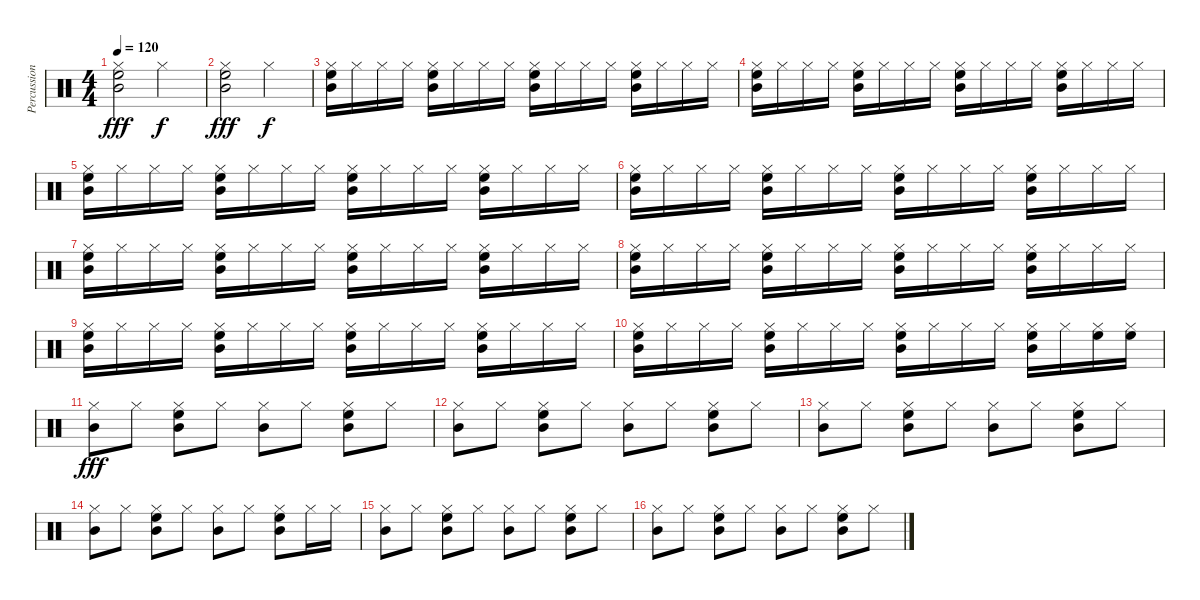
\track ("Percussion" "Percussion") {instrument percussion}
\staff {score}
\articulation defaults
\ts (4 4)
\tempo 120
\clef neutral
\ks c
("Hi-Hat (closed)" "Mid Tom (hit)" "High Floor Tom (hit)").2{dy fff} "Hi-Hat (closed)".2{dy f} |
("Hi-Hat (closed)" "Mid Tom (hit)" "High Floor Tom (hit)").2{dy fff} "Hi-Hat (closed)".2{dy f} |
("Hi-Hat (closed)" "Mid Tom (hit)" "High Floor Tom (hit)").16 "Hi-Hat (closed)".16 "Hi-Hat (closed)".16 "Hi-Hat (closed)".16 ("Hi-Hat (closed)" "Mid Tom (hit)" "High Floor Tom (hit)").16 "Hi-Hat (closed)".16 "Hi-Hat (closed)".16 "Hi-Hat (closed)".16 ("Hi-Hat (closed)" "Mid Tom (hit)" "High Floor Tom (hit)").16 "Hi-Hat (closed)".16 "Hi-Hat (closed)".16 "Hi-Hat (closed)".16 ("Hi-Hat (closed)" "Mid Tom (hit)" "High Floor Tom (hit)").16 "Hi-Hat (closed)".16 "Hi-Hat (closed)".16 "Hi-Hat (closed)".16 |
("Hi-Hat (closed)" "Mid Tom (hit)" "High Floor Tom (hit)").16 "Hi-Hat (closed)".16 "Hi-Hat (closed)".16 "Hi-Hat (closed)".16 ("Hi-Hat (closed)" "Mid Tom (hit)" "High Floor Tom (hit)").16 "Hi-Hat (closed)".16 "Hi-Hat (closed)".16 "Hi-Hat (closed)".16 ("Hi-Hat (closed)" "Mid Tom (hit)" "High Floor Tom (hit)").16 "Hi-Hat (closed)".16 "Hi-Hat (closed)".16 "Hi-Hat (closed)".16 ("Hi-Hat (closed)" "Mid Tom (hit)" "High Floor Tom (hit)").16 "Hi-Hat (closed)".16 "Hi-Hat (closed)".16 "Hi-Hat (closed)".16 |
("Hi-Hat (closed)" "Mid Tom (hit)" "High Floor Tom (hit)").16 "Hi-Hat (closed)".16 "Hi-Hat (closed)".16 "Hi-Hat (closed)".16 ("Hi-Hat (closed)" "Mid Tom (hit)" "High Floor Tom (hit)").16 "Hi-Hat (closed)".16 "Hi-Hat (closed)".16 "Hi-Hat (closed)".16 ("Hi-Hat (closed)" "Mid Tom (hit)" "High Floor Tom (hit)").16 "Hi-Hat (closed)".16 "Hi-Hat (closed)".16 "Hi-Hat (closed)".16 ("Hi-Hat (closed)" "Mid Tom (hit)" "High Floor Tom (hit)").16 "Hi-Hat (closed)".16 "Hi-Hat (closed)".16 "Hi-Hat (closed)".16 |
("Hi-Hat (closed)" "Mid Tom (hit)" "High Floor Tom (hit)").16 "Hi-Hat (closed)".16 "Hi-Hat (closed)".16 "Hi-Hat (closed)".16 ("Hi-Hat (closed)" "Mid Tom (hit)" "High Floor Tom (hit)").16 "Hi-Hat (closed)".16 "Hi-Hat (closed)".16 "Hi-Hat (closed)".16 ("Hi-Hat (closed)" "Mid Tom (hit)" "High Floor Tom (hit)").16 "Hi-Hat (closed)".16 "Hi-Hat (closed)".16 "Hi-Hat (closed)".16 ("Hi-Hat (closed)" "Mid Tom (hit)" "High Floor Tom (hit)").16 "Hi-Hat (closed)".16 "Hi-Hat (closed)".16 "Hi-Hat (closed)".16 |
("Hi-Hat (closed)" "Mid Tom (hit)" "High Floor Tom (hit)").16 "Hi-Hat (closed)".16 "Hi-Hat (closed)".16 "Hi-Hat (closed)".16 ("Hi-Hat (closed)" "Mid Tom (hit)" "High Floor Tom (hit)").16 "Hi-Hat (closed)".16 "Hi-Hat (closed)".16 "Hi-Hat (closed)".16 ("Hi-Hat (closed)" "Mid Tom (hit)" "High Floor Tom (hit)").16 "Hi-Hat (closed)".16 "Hi-Hat (closed)".16 "Hi-Hat (closed)".16 ("Hi-Hat (closed)" "Mid Tom (hit)" "High Floor Tom (hit)").16 "Hi-Hat (closed)".16 "Hi-Hat (closed)".16 "Hi-Hat (closed)".16 |
("Hi-Hat (closed)" "Mid Tom (hit)" "High Floor Tom (hit)").16 "Hi-Hat (closed)".16 "Hi-Hat (closed)".16 "Hi-Hat (closed)".16 ("Hi-Hat (closed)" "Mid Tom (hit)" "High Floor Tom (hit)").16 "Hi-Hat (closed)".16 "Hi-Hat (closed)".16 "Hi-Hat (closed)".16 ("Hi-Hat (closed)" "Mid Tom (hit)" "High Floor Tom (hit)").16 "Hi-Hat (closed)".16 "Hi-Hat (closed)".16 "Hi-Hat (closed)".16 ("Hi-Hat (closed)" "Mid Tom (hit)" "High Floor Tom (hit)").16 "Hi-Hat (closed)".16 "Hi-Hat (closed)".16 "Hi-Hat (closed)".16 |
("Hi-Hat (closed)" "Mid Tom (hit)" "High Floor Tom (hit)").16 "Hi-Hat (closed)".16 "Hi-Hat (closed)".16 "Hi-Hat (closed)".16 ("Hi-Hat (closed)" "Mid Tom (hit)" "High Floor Tom (hit)").16 "Hi-Hat (closed)".16 "Hi-Hat (closed)".16 "Hi-Hat (closed)".16 ("Hi-Hat (closed)" "Mid Tom (hit)" "High Floor Tom (hit)").16 "Hi-Hat (closed)".16 "Hi-Hat (closed)".16 "Hi-Hat (closed)".16 ("Hi-Hat (closed)" "Mid Tom (hit)" "High Floor Tom (hit)").16 "Hi-Hat (closed)".16 "Hi-Hat (closed)".16 "Hi-Hat (closed)".16 |
("Hi-Hat (closed)" "Mid Tom (hit)" "High Floor Tom (hit)").16 "Hi-Hat (closed)".16 "Hi-Hat (closed)".16 "Hi-Hat (closed)".16 ("Hi-Hat (closed)" "Mid Tom (hit)" "High Floor Tom (hit)").16 "Hi-Hat (closed)".16 "Hi-Hat (closed)".16 "Hi-Hat (closed)".16 ("Hi-Hat (closed)" "Mid Tom (hit)" "High Floor Tom (hit)").16 "Hi-Hat (closed)".16 "Hi-Hat (closed)".16 "Hi-Hat (closed)".16 ("Hi-Hat (closed)" "Mid Tom (hit)" "High Floor Tom (hit)").16 "Hi-Hat (closed)".16 ("Hi-Hat (closed)" "High Floor Tom (hit)").16 ("Hi-Hat (closed)" "High Floor Tom (hit)").16 |
("Hi-Hat (closed)" "Mid Tom (hit)").8{dy fff} "Hi-Hat (closed)".8 ("Hi-Hat (closed)" "Mid Tom (hit)" "High Floor Tom (hit)").8 "Hi-Hat (closed)".8 ("Hi-Hat (closed)" "Mid Tom (hit)").8 "Hi-Hat (closed)".8 ("Hi-Hat (closed)" "Mid Tom (hit)" "High Floor Tom (hit)").8 "Hi-Hat (closed)".8 |
("Hi-Hat (closed)" "Mid Tom (hit)").8 "Hi-Hat (closed)".8 ("Hi-Hat (closed)" "Mid Tom (hit)" "High Floor Tom (hit)").8 "Hi-Hat (closed)".8 ("Hi-Hat (closed)" "Mid Tom (hit)").8 "Hi-Hat (closed)".8 ("Hi-Hat (closed)" "Mid Tom (hit)" "High Floor Tom (hit)").8 "Hi-Hat (closed)".8 |
("Hi-Hat (closed)" "Mid Tom (hit)").8 "Hi-Hat (closed)".8 ("Hi-Hat (closed)" "Mid Tom (hit)" "High Floor Tom (hit)").8 "Hi-Hat (closed)".8 ("Hi-Hat (closed)" "Mid Tom (hit)").8 "Hi-Hat (closed)".8 ("Hi-Hat (closed)" "Mid Tom (hit)" "High Floor Tom (hit)").8 "Hi-Hat (closed)".8 |
("Hi-Hat (closed)" "Mid Tom (hit)").8 "Hi-Hat (closed)".8 ("Hi-Hat (closed)" "Mid Tom (hit)" "High Floor Tom (hit)").8 "Hi-Hat (closed)".8 ("Hi-Hat (closed)" "Mid Tom (hit)").8 "Hi-Hat (closed)".8 ("Hi-Hat (closed)" "Mid Tom (hit)" "High Floor Tom (hit)").8 "Hi-Hat (closed)".16 "Hi-Hat (closed)".16 |
("Hi-Hat (closed)" "Mid Tom (hit)").8 "Hi-Hat (closed)".8 ("Hi-Hat (closed)" "Mid Tom (hit)" "High Floor Tom (hit)").8 "Hi-Hat (closed)".8 ("Hi-Hat (closed)" "Mid Tom (hit)").8 "Hi-Hat (closed)".8 ("Hi-Hat (closed)" "Mid Tom (hit)" "High Floor Tom (hit)").8 "Hi-Hat (closed)".8 |
("Hi-Hat (closed)" "Mid Tom (hit)").8 "Hi-Hat (closed)".8 ("Hi-Hat (closed)" "Mid Tom (hit)" "High Floor Tom (hit)").8 "Hi-Hat (closed)".8 ("Hi-Hat (closed)" "Mid Tom (hit)").8 "Hi-Hat (closed)".8 ("Hi-Hat (closed)" "Mid Tom (hit)" "High Floor Tom (hit)").8 "Hi-Hat (closed)".8
